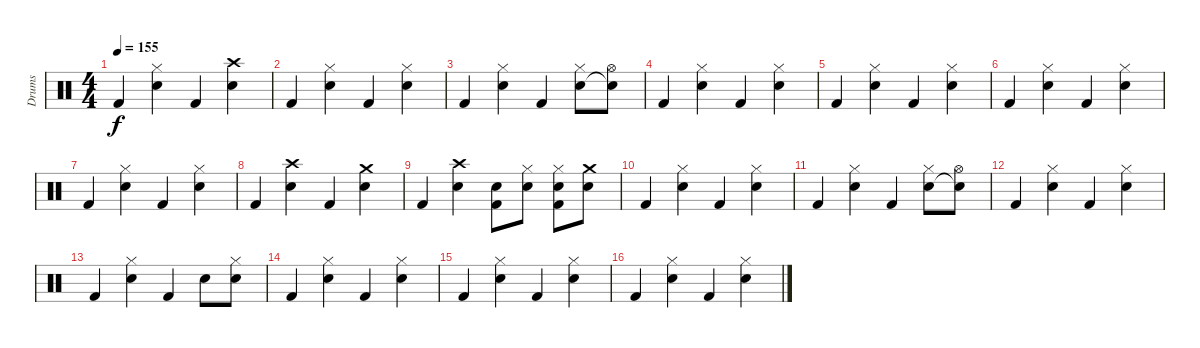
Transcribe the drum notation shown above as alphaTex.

\track ("Drums" "Drums") {instrument percussion}
\staff {score}
\articulation defaults
\ts (4 4)
\tempo 155
\clef neutral
\ks c "Kick (hit) 2".4{dy f}
("Electric Snare (hit)" "Hi-Hat (closed)").4 "Kick (hit) 2".4 ("Electric Snare (hit)" "Crash high (hit)").4 |
"Kick (hit) 2".4 ("Electric Snare (hit)" "Hi-Hat (closed)").4 "Kick (hit) 2".4 ("Electric Snare (hit)" "Hi-Hat (closed)").4 |
"Kick (hit) 2".4 ("Electric Snare (hit)" "Hi-Hat (closed)").4 "Kick (hit) 2".4 ("Electric Snare (hit)" "Hi-Hat (closed)").8 ("Snare (hit)"{t} "Hi-Hat (open)").8 |
"Kick (hit) 2".4 ("Electric Snare (hit)" "Hi-Hat (closed)").4 "Kick (hit) 2".4 ("Electric Snare (hit)" "Hi-Hat (closed)").4 |
"Kick (hit) 2".4 ("Electric Snare (hit)" "Hi-Hat (closed)").4 "Kick (hit) 2".4 ("Electric Snare (hit)" "Hi-Hat (closed)").4 |
"Kick (hit) 2".4 ("Electric Snare (hit)" "Hi-Hat (closed)").4 "Kick (hit) 2".4 ("Electric Snare (hit)" "Hi-Hat (closed)").4 |
"Kick (hit) 2".4 ("Electric Snare (hit)" "Hi-Hat (closed)").4 "Kick (hit) 2".4 ("Electric Snare (hit)" "Hi-Hat (closed)").4 |
"Kick (hit) 2".4 ("Electric Snare (hit)" "Crash high (hit)").4 "Kick (hit) 2".4 ("Electric Snare (hit)" "Crash medium (hit)").4 |
"Kick (hit) 2".4 ("Electric Snare (hit)" "Crash high (hit)").4 ("Kick (hit) 2" "Electric Snare (hit)").8 ("Electric Snare (hit)" "Hi-Hat (closed)").8 ("Kick (hit) 2" "Electric Snare (hit)" "Hi-Hat (closed)").8 ("Electric Snare (hit)" "Crash medium (hit)").8 |
"Kick (hit) 2".4 ("Electric Snare (hit)" "Hi-Hat (closed)").4 "Kick (hit) 2".4 ("Electric Snare (hit)" "Hi-Hat (closed)").4 |
"Kick (hit) 2".4 ("Electric Snare (hit)" "Hi-Hat (closed)").4 "Kick (hit) 2".4 ("Electric Snare (hit)" "Hi-Hat (closed)").8 ("Snare (hit)"{t} "Hi-Hat (open)").8 |
"Kick (hit) 2".4 ("Electric Snare (hit)" "Hi-Hat (closed)").4 "Kick (hit) 2".4 ("Electric Snare (hit)" "Hi-Hat (closed)").4 |
"Kick (hit) 2".4 ("Electric Snare (hit)" "Hi-Hat (closed)").4 "Kick (hit) 2".4 "Electric Snare (hit)".8 ("Electric Snare (hit)" "Hi-Hat (closed)").8 |
"Kick (hit) 2".4 ("Electric Snare (hit)" "Hi-Hat (closed)").4 "Kick (hit) 2".4 ("Electric Snare (hit)" "Hi-Hat (closed)").4 |
"Kick (hit) 2".4 ("Electric Snare (hit)" "Hi-Hat (closed)").4 "Kick (hit) 2".4 ("Electric Snare (hit)" "Hi-Hat (closed)").4 |
"Kick (hit) 2".4 ("Electric Snare (hit)" "Hi-Hat (closed)").4 "Kick (hit) 2".4 ("Electric Snare (hit)" "Hi-Hat (closed)").4
